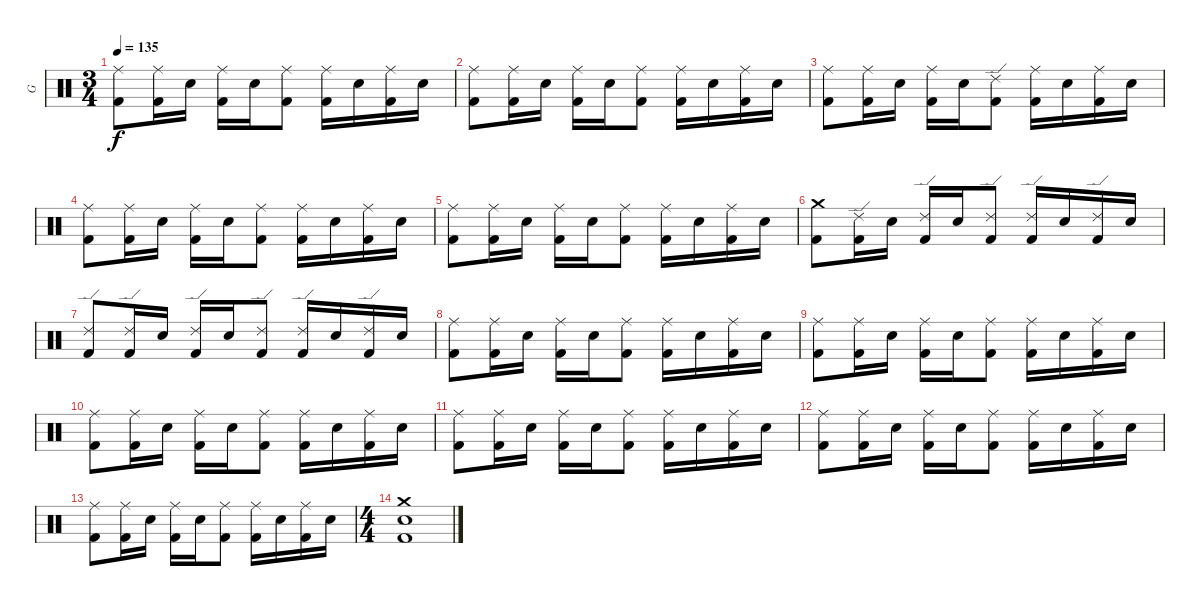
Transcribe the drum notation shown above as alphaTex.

\track ("G" "G") {instrument percussion}
\staff {score}
\articulation defaults
\ts (3 4)
\tempo 135
\clef neutral
\ks c
("Ride (middle)" "Kick (hit) 2").8{dy f} ("Ride (middle)" "Kick (hit) 2").16 "Electric Snare (hit)".16 ("Ride (middle)" "Kick (hit) 2").16 "Electric Snare (hit)".16 ("Ride (middle)" "Kick (hit) 2").8 ("Ride (middle)" "Kick (hit) 2").16 "Electric Snare (hit)".16 ("Ride (middle)" "Kick (hit) 2").16 "Electric Snare (hit)".16 |
("Ride (middle)" "Kick (hit) 2").8 ("Ride (middle)" "Kick (hit) 2").16 "Electric Snare (hit)".16 ("Ride (middle)" "Kick (hit) 2").16 "Electric Snare (hit)".16 ("Ride (middle)" "Kick (hit) 2").8 ("Ride (middle)" "Kick (hit) 2").16 "Electric Snare (hit)".16 ("Ride (middle)" "Kick (hit) 2").16 "Electric Snare (hit)".16 |
("Ride (middle)" "Kick (hit) 2").8 ("Ride (middle)" "Kick (hit) 2").16 "Electric Snare (hit)".16 ("Ride (middle)" "Kick (hit) 2").16 "Electric Snare (hit)".16 ("Ride (edge) 2" "Kick (hit) 2").8 ("Ride (middle)" "Kick (hit) 2").16 "Electric Snare (hit)".16 ("Ride (middle)" "Kick (hit) 2").16 "Electric Snare (hit)".16 |
("Ride (middle)" "Kick (hit) 2").8 ("Ride (middle)" "Kick (hit) 2").16 "Electric Snare (hit)".16 ("Ride (middle)" "Kick (hit) 2").16 "Electric Snare (hit)".16 ("Ride (middle)" "Kick (hit) 2").8 ("Ride (middle)" "Kick (hit) 2").16 "Electric Snare (hit)".16 ("Ride (middle)" "Kick (hit) 2").16 "Electric Snare (hit)".16 |
("Ride (middle)" "Kick (hit) 2").8 ("Ride (middle)" "Kick (hit) 2").16 "Electric Snare (hit)".16 ("Ride (middle)" "Kick (hit) 2").16 "Electric Snare (hit)".16 ("Ride (middle)" "Kick (hit) 2").8 ("Ride (middle)" "Kick (hit) 2").16 "Electric Snare (hit)".16 ("Ride (middle)" "Kick (hit) 2").16 "Electric Snare (hit)".16 |
("Crash medium (hit)" "Kick (hit) 2").8 ("Ride (edge) 2" "Kick (hit) 2").16 "Electric Snare (hit)".16 ("Ride (edge) 2" "Kick (hit) 2").16 "Electric Snare (hit)".16 ("Ride (edge) 2" "Kick (hit) 2").8 ("Ride (edge) 2" "Kick (hit) 2").16 "Electric Snare (hit)".16 ("Ride (edge) 2" "Kick (hit) 2").16 "Electric Snare (hit)".16 |
("Ride (edge) 2" "Kick (hit) 2").8 ("Ride (edge) 2" "Kick (hit) 2").16 "Electric Snare (hit)".16 ("Ride (edge) 2" "Kick (hit) 2").16 "Electric Snare (hit)".16 ("Ride (edge) 2" "Kick (hit) 2").8 ("Ride (edge) 2" "Kick (hit) 2").16 "Electric Snare (hit)".16 ("Ride (edge) 2" "Kick (hit) 2").16 "Electric Snare (hit)".16 |
("Ride (middle)" "Kick (hit) 2").8 ("Ride (middle)" "Kick (hit) 2").16 "Electric Snare (hit)".16 ("Ride (middle)" "Kick (hit) 2").16 "Electric Snare (hit)".16 ("Ride (middle)" "Kick (hit) 2").8 ("Ride (middle)" "Kick (hit) 2").16 "Electric Snare (hit)".16 ("Ride (middle)" "Kick (hit) 2").16 "Electric Snare (hit)".16 |
("Ride (middle)" "Kick (hit) 2").8 ("Ride (middle)" "Kick (hit) 2").16 "Electric Snare (hit)".16 ("Ride (middle)" "Kick (hit) 2").16 "Electric Snare (hit)".16 ("Ride (middle)" "Kick (hit) 2").8 ("Ride (middle)" "Kick (hit) 2").16 "Electric Snare (hit)".16 ("Ride (middle)" "Kick (hit) 2").16 "Electric Snare (hit)".16 |
("Ride (middle)" "Kick (hit) 2").8 ("Ride (middle)" "Kick (hit) 2").16 "Electric Snare (hit)".16 ("Ride (middle)" "Kick (hit) 2").16 "Electric Snare (hit)".16 ("Ride (middle)" "Kick (hit) 2").8 ("Ride (middle)" "Kick (hit) 2").16 "Electric Snare (hit)".16 ("Ride (middle)" "Kick (hit) 2").16 "Electric Snare (hit)".16 |
("Ride (middle)" "Kick (hit) 2").8 ("Ride (middle)" "Kick (hit) 2").16 "Electric Snare (hit)".16 ("Ride (middle)" "Kick (hit) 2").16 "Electric Snare (hit)".16 ("Ride (middle)" "Kick (hit) 2").8 ("Ride (middle)" "Kick (hit) 2").16 "Electric Snare (hit)".16 ("Ride (middle)" "Kick (hit) 2").16 "Electric Snare (hit)".16 |
("Ride (middle)" "Kick (hit) 2").8 ("Ride (middle)" "Kick (hit) 2").16 "Electric Snare (hit)".16 ("Ride (middle)" "Kick (hit) 2").16 "Electric Snare (hit)".16 ("Ride (middle)" "Kick (hit) 2").8 ("Ride (middle)" "Kick (hit) 2").16 "Electric Snare (hit)".16 ("Ride (middle)" "Kick (hit) 2").16 "Electric Snare (hit)".16 |
("Ride (middle)" "Kick (hit) 2").8 ("Ride (middle)" "Kick (hit) 2").16 "Electric Snare (hit)".16 ("Ride (middle)" "Kick (hit) 2").16 "Electric Snare (hit)".16 ("Ride (middle)" "Kick (hit) 2").8 ("Ride (middle)" "Kick (hit) 2").16 "Electric Snare (hit)".16 ("Ride (middle)" "Kick (hit) 2").16 "Electric Snare (hit)".16 |
\ts (4 4)
("Crash medium (hit)" "Electric Snare (hit)" "Kick (hit) 2").1
